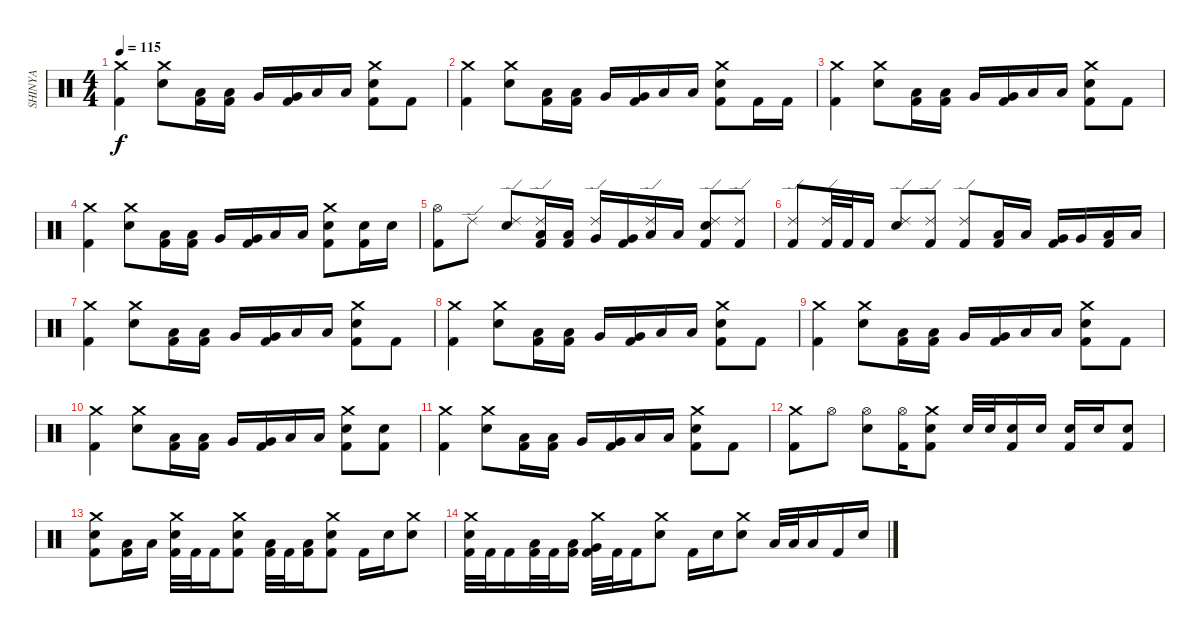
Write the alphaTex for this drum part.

\track ("SHINYA" "SHINYA") {instrument percussion}
\staff {score}
\articulation defaults
\ts (4 4)
\tempo 115
\clef neutral
\ks c
("Crash medium (hit)" "Kick (hit) 2").4{dy f} ("Crash medium (hit)" "Electric Snare (hit)").8 ("Low Tom (hit)" "Kick (hit) 2").16 ("Low Tom (hit)" "Kick (hit) 2").16 "Very Low Tom (hit)".16 ("Very Low Tom (hit)" "Kick (hit) 2").16 "Low Floor Tom (hit)".16 "Low Floor Tom (hit)".16 ("Crash medium (hit)" "Electric Snare (hit)" "Kick (hit) 2").8 "Kick (hit) 2".8 |
("Crash medium (hit)" "Kick (hit) 2").4 ("Crash medium (hit)" "Electric Snare (hit)").8 ("Low Tom (hit)" "Kick (hit) 2").16 ("Low Tom (hit)" "Kick (hit) 2").16 "Very Low Tom (hit)".16 ("Very Low Tom (hit)" "Kick (hit) 2").16 "Low Floor Tom (hit)".16 "Low Floor Tom (hit)".16 ("Crash medium (hit)" "Electric Snare (hit)" "Kick (hit) 2").8 "Kick (hit) 2".16 "Kick (hit) 2".16 |
("Crash medium (hit)" "Kick (hit) 2").4 ("Crash medium (hit)" "Electric Snare (hit)").8 ("Low Tom (hit)" "Kick (hit) 2").16 ("Low Tom (hit)" "Kick (hit) 2").16 "Very Low Tom (hit)".16 ("Very Low Tom (hit)" "Kick (hit) 2").16 "Low Floor Tom (hit)".16 "Low Floor Tom (hit)".16 ("Crash medium (hit)" "Electric Snare (hit)" "Kick (hit) 2").8 "Kick (hit) 2".8 |
("Crash medium (hit)" "Kick (hit) 2").4 ("Crash medium (hit)" "Electric Snare (hit)").8 ("Low Tom (hit)" "Kick (hit) 2").16 ("Low Tom (hit)" "Kick (hit) 2").16 "Very Low Tom (hit)".16 ("Very Low Tom (hit)" "Kick (hit) 2").16 "Low Floor Tom (hit)".16 "Low Floor Tom (hit)".16 ("Crash medium (hit)" "Electric Snare (hit)" "Kick (hit) 2").8 ("Electric Snare (hit)" "Kick (hit) 2").16 "Electric Snare (hit)".16 |
("Hi-Hat (open)" "Kick (hit) 2").8 "Ride (edge) 2".8 ("Ride (edge) 2" "Electric Snare (hit)").8 ("Ride (edge) 2" "Low Tom (hit)" "Kick (hit) 2").16 ("Low Tom (hit)" "Kick (hit) 2").16 ("Ride (edge) 2" "Very Low Tom (hit)").16 ("Very Low Tom (hit)" "Kick (hit) 2").16 ("Ride (edge) 2" "Low Floor Tom (hit)").16 "Low Floor Tom (hit)".16 ("Ride (edge) 2" "Electric Snare (hit)" "Kick (hit) 2").8 ("Ride (edge) 2" "Kick (hit) 2").8 |
("Ride (edge) 2" "Kick (hit) 2").8 ("Ride (edge) 2" "Kick (hit) 2").32 "Kick (hit) 2".32 "Kick (hit) 2".16 ("Ride (edge) 2" "Electric Snare (hit)").8 ("Ride (edge) 2" "Kick (hit) 2").8 ("Ride (edge) 2" "Kick (hit) 2").8 ("Low Tom (hit)" "Kick (hit) 2").16 "Low Tom (hit)".16 ("Very Low Tom (hit)" "Kick (hit) 2").16 "Very Low Tom (hit)".16 ("Low Floor Tom (hit)" "Kick (hit) 2").16 "Low Floor Tom (hit)".16 |
("Crash medium (hit)" "Kick (hit) 2").4 ("Crash medium (hit)" "Electric Snare (hit)").8 ("Low Tom (hit)" "Kick (hit) 2").16 ("Low Tom (hit)" "Kick (hit) 2").16 "Very Low Tom (hit)".16 ("Very Low Tom (hit)" "Kick (hit) 2").16 "Low Floor Tom (hit)".16 "Low Floor Tom (hit)".16 ("Crash medium (hit)" "Electric Snare (hit)" "Kick (hit) 2").8 "Kick (hit) 2".8 |
("Crash medium (hit)" "Kick (hit) 2").4 ("Crash medium (hit)" "Electric Snare (hit)").8 ("Low Tom (hit)" "Kick (hit) 2").16 ("Low Tom (hit)" "Kick (hit) 2").16 "Very Low Tom (hit)".16 ("Very Low Tom (hit)" "Kick (hit) 2").16 "Low Floor Tom (hit)".16 "Low Floor Tom (hit)".16 ("Crash medium (hit)" "Electric Snare (hit)" "Kick (hit) 2").8 "Kick (hit) 2".8 |
("Crash medium (hit)" "Kick (hit) 2").4 ("Crash medium (hit)" "Electric Snare (hit)").8 ("Low Tom (hit)" "Kick (hit) 2").16 ("Low Tom (hit)" "Kick (hit) 2").16 "Very Low Tom (hit)".16 ("Very Low Tom (hit)" "Kick (hit) 2").16 "Low Floor Tom (hit)".16 "Low Floor Tom (hit)".16 ("Crash medium (hit)" "Electric Snare (hit)" "Kick (hit) 2").8 "Kick (hit) 2".8 |
("Crash medium (hit)" "Kick (hit) 2").4 ("Crash medium (hit)" "Electric Snare (hit)").8 ("Low Tom (hit)" "Kick (hit) 2").16 ("Low Tom (hit)" "Kick (hit) 2").16 "Very Low Tom (hit)".16 ("Very Low Tom (hit)" "Kick (hit) 2").16 "Low Floor Tom (hit)".16 "Low Floor Tom (hit)".16 ("Crash medium (hit)" "Electric Snare (hit)" "Kick (hit) 2").8 ("Electric Snare (hit)" "Kick (hit) 2").8 |
("Crash medium (hit)" "Kick (hit) 2").4 ("Crash medium (hit)" "Electric Snare (hit)").8 ("Low Tom (hit)" "Kick (hit) 2").16 ("Low Tom (hit)" "Kick (hit) 2").16 "Very Low Tom (hit)".16 ("Very Low Tom (hit)" "Kick (hit) 2").16 "Low Floor Tom (hit)".16 "Low Floor Tom (hit)".16 ("Crash medium (hit)" "Electric Snare (hit)" "Kick (hit) 2").8 "Kick (hit) 2".8 |
("Crash medium (hit)" "Kick (hit) 2").8 "Hi-Hat (open)".8 ("Hi-Hat (open)" "Electric Snare (hit)").8 ("Hi-Hat (open)" "Kick (hit) 2").16 ("Crash medium (hit)" "Electric Snare (hit)" "Kick (hit) 2").8 "Electric Snare (hit)".32 "Electric Snare (hit)".32 ("Electric Snare (hit)" "Kick (hit) 2").16 "Electric Snare (hit)".16 ("Electric Snare (hit)" "Kick (hit) 2").16 "Electric Snare (hit)".16 ("Electric Snare (hit)" "Kick (hit) 2").8 |
("Crash medium (hit)" "Electric Snare (hit)" "Kick (hit) 2").8 ("Low Floor Tom (hit)" "Kick (hit) 2").16 "Low Floor Tom (hit)".16 ("Crash medium (hit)" "Electric Snare (hit)" "Kick (hit) 2").32 "Kick (hit) 2".32 "Kick (hit) 2".16 ("Crash medium (hit)" "Electric Snare (hit)" "Kick (hit) 2").8 ("Low Floor Tom (hit)" "Kick (hit) 2").32 "Kick (hit) 2".32 ("Low Floor Tom (hit)" "Kick (hit) 2").16 ("Crash medium (hit)" "Electric Snare (hit)" "Kick (hit) 2").8 "Kick (hit) 2".16 "Electric Snare (hit)".16 ("Crash medium (hit)" "Electric Snare (hit)").8 |
("Crash medium (hit)" "Electric Snare (hit)" "Kick (hit) 2").32 "Kick (hit) 2".32 "Kick (hit) 2".16 ("Low Tom (hit)" "Kick (hit) 2").32 "Kick (hit) 2".32 ("Low Tom (hit)" "Kick (hit) 2").16 ("Crash medium (hit)" "Very Low Tom (hit)" "Kick (hit) 2").32 "Kick (hit) 2".32 "Kick (hit) 2".16 ("Crash medium (hit)" "Electric Snare (hit)").8 "Kick (hit) 2".16 "Electric Snare (hit)".16 ("Crash medium (hit)" "Electric Snare (hit)").8 "Low Floor Tom (hit)".32 "Low Floor Tom (hit)".32 "Low Floor Tom (hit)".16 "Kick (hit) 2".16 "Electric Snare (hit)".16
